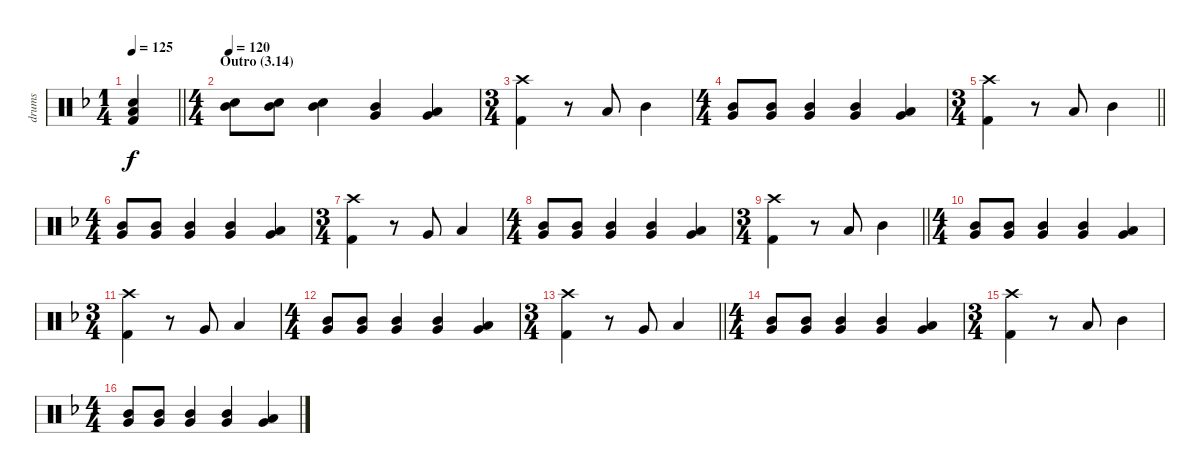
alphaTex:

\track ("drums" "drums") {instrument percussion}
\staff {score}
\articulation defaults
\ts (1 4)
\tempo 125
\clef neutral
\barLineRight lightlight
\ks f
("Low Tom (hit)" "Electric Snare (hit)" "Kick (hit) 2").4{dy f} |
\ts (4 4)
\section ("" "Outro (3.14)")
\tempo 120
("Mid Tom (hit)" "Electric Snare (hit)").8 ("Mid Tom (hit)" "Electric Snare (hit)").8 ("Mid Tom (hit)" "Electric Snare (hit)").4 ("Mid Tom (hit)" "Very Low Tom (hit)").4 ("Low Tom (hit)" "Very Low Tom (hit)").4 |
\ts (3 4)
("Crash high (hit)" "Kick (hit) 2").4 r.8 "Low Tom (hit)".8 "Mid Tom (hit)".4 |
\ts (4 4)
("Mid Tom (hit)" "Very Low Tom (hit)").8 ("Mid Tom (hit)" "Very Low Tom (hit)").8 ("Mid Tom (hit)" "Very Low Tom (hit)").4 ("Mid Tom (hit)" "Very Low Tom (hit)").4 ("Low Tom (hit)" "Very Low Tom (hit)").4 |
\ts (3 4)
\barLineRight lightlight
("Crash high (hit)" "Kick (hit) 2").4 r.8 "Low Tom (hit)".8 "Mid Tom (hit)".4 |
\ts (4 4)
("Mid Tom (hit)" "Very Low Tom (hit)").8 ("Mid Tom (hit)" "Very Low Tom (hit)").8 ("Mid Tom (hit)" "Very Low Tom (hit)").4 ("Mid Tom (hit)" "Very Low Tom (hit)").4 ("Low Tom (hit)" "Very Low Tom (hit)").4 |
\ts (3 4)
("Crash high (hit)" "Kick (hit) 2").4 r.8 "Very Low Tom (hit)".8 "Low Tom (hit)".4 |
\ts (4 4)
("Mid Tom (hit)" "Very Low Tom (hit)").8 ("Mid Tom (hit)" "Very Low Tom (hit)").8 ("Mid Tom (hit)" "Very Low Tom (hit)").4 ("Mid Tom (hit)" "Very Low Tom (hit)").4 ("Low Tom (hit)" "Very Low Tom (hit)").4 |
\ts (3 4)
\barLineRight lightlight
("Crash high (hit)" "Kick (hit) 2").4 r.8 "Low Tom (hit)".8 "Mid Tom (hit)".4 |
\ts (4 4)
("Mid Tom (hit)" "Very Low Tom (hit)").8 ("Mid Tom (hit)" "Very Low Tom (hit)").8 ("Mid Tom (hit)" "Very Low Tom (hit)").4 ("Mid Tom (hit)" "Very Low Tom (hit)").4 ("Low Tom (hit)" "Very Low Tom (hit)").4 |
\ts (3 4)
("Crash high (hit)" "Kick (hit) 2").4 r.8 "Very Low Tom (hit)".8 "Low Tom (hit)".4 |
\ts (4 4)
("Mid Tom (hit)" "Very Low Tom (hit)").8 ("Mid Tom (hit)" "Very Low Tom (hit)").8 ("Mid Tom (hit)" "Very Low Tom (hit)").4 ("Mid Tom (hit)" "Very Low Tom (hit)").4 ("Low Tom (hit)" "Very Low Tom (hit)").4 |
\ts (3 4)
\barLineRight lightlight
("Crash high (hit)" "Kick (hit) 2").4 r.8 "Very Low Tom (hit)".8 "Low Tom (hit)".4 |
\ts (4 4)
("Mid Tom (hit)" "Very Low Tom (hit)").8 ("Mid Tom (hit)" "Very Low Tom (hit)").8 ("Mid Tom (hit)" "Very Low Tom (hit)").4 ("Mid Tom (hit)" "Very Low Tom (hit)").4 ("Low Tom (hit)" "Very Low Tom (hit)").4 |
\ts (3 4)
("Crash high (hit)" "Kick (hit) 2").4 r.8 "Low Tom (hit)".8 "Mid Tom (hit)".4 |
\ts (4 4)
("Mid Tom (hit)" "Very Low Tom (hit)").8 ("Mid Tom (hit)" "Very Low Tom (hit)").8 ("Mid Tom (hit)" "Very Low Tom (hit)").4 ("Mid Tom (hit)" "Very Low Tom (hit)").4 ("Low Tom (hit)" "Very Low Tom (hit)").4
